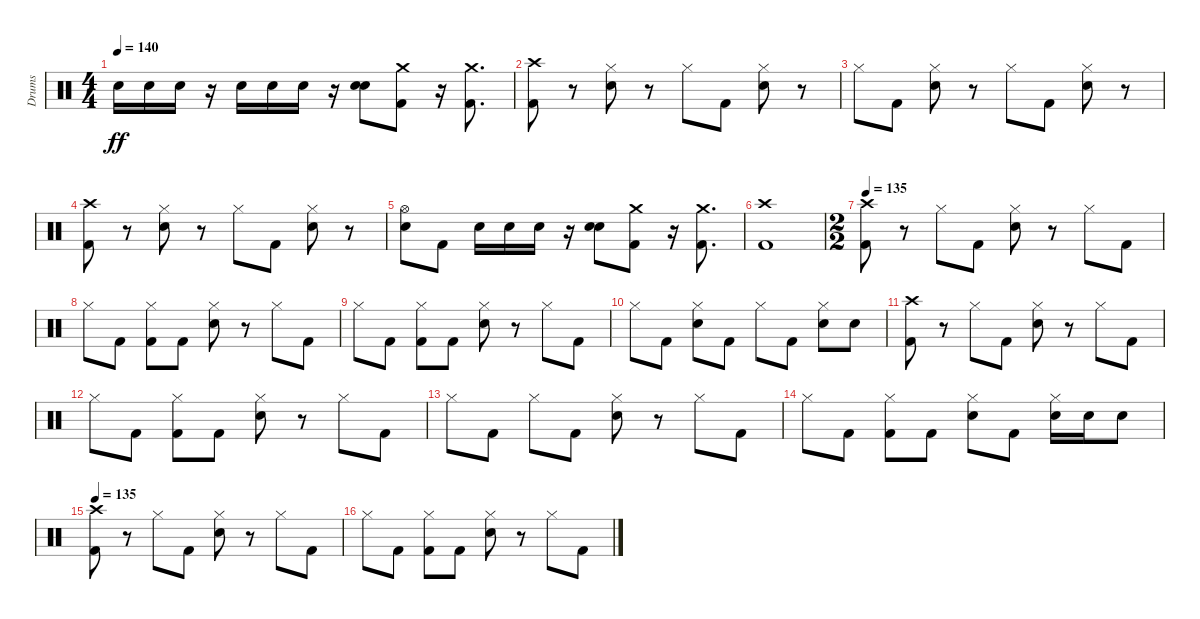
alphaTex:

\track ("Drums" "Drums") {instrument percussion}
\staff {score}
\articulation defaults
\ts (4 4)
\tempo 140
\clef neutral
\ks c "Snare (hit) 2".16{dy ff} "Snare (hit) 2".16 "Snare (hit) 2".16
r.16 "Snare (hit) 2".16 "Snare (hit) 2".16 "Snare (hit) 2".16 r.16 ("Snare (hit) 2" "Snare (hit) 2").8{bd 480} ("Crash medium (hit)" "Kick (hit) 2").8 r.16 ("Crash medium (hit)" "Kick (hit) 2").8{d} |
("Crash high (hit)" "Kick (hit) 2").8 r.8 ("Hi-Hat (closed)" "Snare (hit) 2").8 r.8 "Hi-Hat (closed)".8 "Kick (hit) 2".8 ("Hi-Hat (closed)" "Snare (hit) 2").8 r.8 |
"Hi-Hat (closed)".8 "Kick (hit) 2".8 ("Hi-Hat (closed)" "Snare (hit) 2").8 r.8 "Hi-Hat (closed)".8 "Kick (hit) 2".8 ("Hi-Hat (closed)" "Snare (hit) 2").8 r.8 |
("Crash high (hit)" "Kick (hit) 2").8 r.8 ("Hi-Hat (closed)" "Snare (hit) 2").8 r.8 "Hi-Hat (closed)".8 "Kick (hit) 2".8 ("Hi-Hat (closed)" "Snare (hit) 2").8 r.8 |
("Hi-Hat (open)" "Snare (hit) 2").8 "Kick (hit) 2".8 "Snare (hit) 2".16 "Snare (hit) 2".16 "Snare (hit) 2".16 r.16 ("Snare (hit) 2" "Snare (hit) 2").8{bd 480} ("Crash medium (hit)" "Kick (hit) 2").8 r.16 ("Crash medium (hit)" "Kick (hit) 2").8{d} |
("Crash high (hit)" "Kick (hit) 2").1 |
\ts (2 2)
\tempo 135
("Crash high (hit)" "Kick (hit) 2").8 r.8 "Hi-Hat (closed)".8 "Kick (hit) 2".8 ("Hi-Hat (closed)" "Snare (hit) 2").8 r.8 "Hi-Hat (closed)".8 "Kick (hit) 2".8 |
"Hi-Hat (closed)".8 "Kick (hit) 2".8 ("Hi-Hat (closed)" "Kick (hit) 2").8 "Kick (hit) 2".8 ("Hi-Hat (closed)" "Snare (hit) 2").8 r.8 "Hi-Hat (closed)".8 "Kick (hit) 2".8 |
"Hi-Hat (closed)".8 "Kick (hit) 2".8 ("Hi-Hat (closed)" "Kick (hit) 2").8 "Kick (hit) 2".8 ("Hi-Hat (closed)" "Snare (hit) 2").8 r.8 "Hi-Hat (closed)".8 "Kick (hit) 2".8 |
"Hi-Hat (closed)".8 "Kick (hit) 2".8 ("Hi-Hat (closed)" "Snare (hit) 2").8 "Kick (hit) 2".8 "Hi-Hat (closed)".8 "Kick (hit) 2".8 ("Hi-Hat (closed)" "Snare (hit) 2").8 "Snare (hit) 2".8 |
("Crash high (hit)" "Kick (hit) 2").8 r.8 "Hi-Hat (closed)".8 "Kick (hit) 2".8 ("Hi-Hat (closed)" "Snare (hit) 2").8 r.8 "Hi-Hat (closed)".8 "Kick (hit) 2".8 |
"Hi-Hat (closed)".8 "Kick (hit) 2".8 ("Hi-Hat (closed)" "Kick (hit) 2").8 "Kick (hit) 2".8 ("Hi-Hat (closed)" "Snare (hit) 2").8 r.8 "Hi-Hat (closed)".8 "Kick (hit) 2".8 |
"Hi-Hat (closed)".8 "Kick (hit) 2".8 "Hi-Hat (closed)".8 "Kick (hit) 2".8 ("Hi-Hat (closed)" "Snare (hit) 2").8 r.8 "Hi-Hat (closed)".8 "Kick (hit) 2".8 |
"Hi-Hat (closed)".8 "Kick (hit) 2".8 ("Hi-Hat (closed)" "Kick (hit) 2").8 "Kick (hit) 2".8 ("Hi-Hat (closed)" "Snare (hit) 2").8 "Kick (hit) 2".8 ("Hi-Hat (closed)" "Snare (hit) 2").16 "Snare (hit) 2".16 "Snare (hit) 2".8 |
\tempo 135
("Crash high (hit)" "Kick (hit) 2").8 r.8 "Hi-Hat (closed)".8 "Kick (hit) 2".8 ("Hi-Hat (closed)" "Snare (hit) 2").8 r.8 "Hi-Hat (closed)".8 "Kick (hit) 2".8 |
"Hi-Hat (closed)".8 "Kick (hit) 2".8 ("Hi-Hat (closed)" "Kick (hit) 2").8 "Kick (hit) 2".8 ("Hi-Hat (closed)" "Snare (hit) 2").8 r.8 "Hi-Hat (closed)".8 "Kick (hit) 2".8
